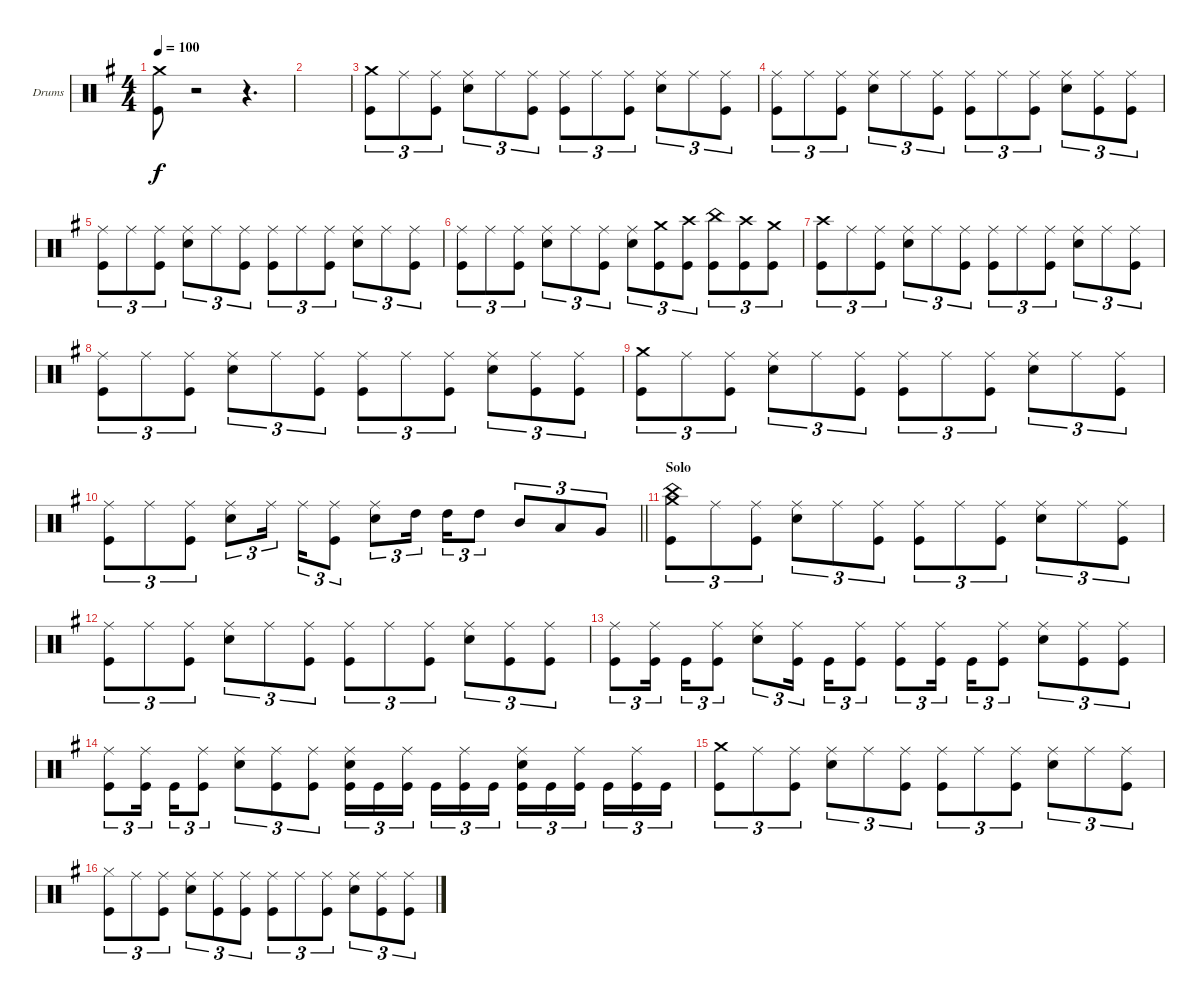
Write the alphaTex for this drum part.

\bracketExtendMode groupsimilarinstruments
\firstSystemTrackNameOrientation horizontal
\otherSystemsTrackNameOrientation horizontal
\track ("drums (Anton Zulganov)" "Drums") {instrument percussion}
\staff {score}
\articulation defaults
\ts (4 4)
\tempo 100
\clef neutral
\ks eminor
("Kick (hit)" "Crash medium (hit)").8{dy f} r.2 r.4{d} |
|
("Kick (hit)" "Crash medium (hit)").8{tu (3 2)} "Ride (middle)".8{tu (3 2)} ("Ride (middle)" "Kick (hit)").8{tu (3 2)} ("Snare (hit) 2" "Ride (middle)").8{tu (3 2)} "Ride (middle)".8{tu (3 2)} ("Ride (middle)" "Kick (hit)").8{tu (3 2)} ("Kick (hit)" "Ride (middle)").8{tu (3 2)} "Ride (middle)".8{tu (3 2)} ("Ride (middle)" "Kick (hit)").8{tu (3 2)} ("Snare (hit) 2" "Ride (middle)").8{tu (3 2)} "Ride (middle)".8{tu (3 2)} ("Kick (hit)" "Ride (middle)").8{tu (3 2)} |
("Kick (hit)" "Ride (middle)").8{tu (3 2)} "Ride (middle)".8{tu (3 2)} ("Ride (middle)" "Kick (hit)").8{tu (3 2)} ("Snare (hit) 2" "Ride (middle)").8{tu (3 2)} "Ride (middle)".8{tu (3 2)} ("Ride (middle)" "Kick (hit)").8{tu (3 2)} ("Kick (hit)" "Ride (middle)").8{tu (3 2)} "Ride (middle)".8{tu (3 2)} ("Ride (middle)" "Kick (hit)").8{tu (3 2)} ("Snare (hit) 2" "Ride (middle)").8{tu (3 2)} ("Ride (middle)" "Kick (hit)").8{tu (3 2)} ("Kick (hit)" "Ride (middle)").8{tu (3 2)} |
("Kick (hit)" "Ride (middle)").8{tu (3 2)} "Ride (middle)".8{tu (3 2)} ("Ride (middle)" "Kick (hit)").8{tu (3 2)} ("Snare (hit) 2" "Ride (middle)").8{tu (3 2)} "Ride (middle)".8{tu (3 2)} ("Ride (middle)" "Kick (hit)").8{tu (3 2)} ("Kick (hit)" "Ride (middle)").8{tu (3 2)} "Ride (middle)".8{tu (3 2)} ("Ride (middle)" "Kick (hit)").8{tu (3 2)} ("Snare (hit) 2" "Ride (middle)").8{tu (3 2)} "Ride (middle)".8{tu (3 2)} ("Kick (hit)" "Ride (middle)").8{tu (3 2)} |
("Kick (hit)" "Ride (middle)").8{tu (3 2)} "Ride (middle)".8{tu (3 2)} ("Ride (middle)" "Kick (hit)").8{tu (3 2)} ("Snare (hit) 2" "Ride (middle)").8{tu (3 2)} "Ride (middle)".8{tu (3 2)} ("Ride (middle)" "Kick (hit)").8{tu (3 2)} ("Ride (middle)" "Snare (hit) 2").8{tu (3 2)} ("Kick (hit)" "Crash medium (hit)").8{tu (3 2)} ("Kick (hit)" "Crash high (hit)").8{tu (3 2)} ("Kick (hit)" "China (hit)").8{tu (3 2)} ("Kick (hit)" "Crash high (hit)").8{tu (3 2)} ("Kick (hit)" "Crash medium (hit)").8{tu (3 2)} |
("Kick (hit)" "Crash high (hit)").8{tu (3 2)} "Ride (middle)".8{tu (3 2)} ("Ride (middle)" "Kick (hit)").8{tu (3 2)} ("Snare (hit) 2" "Ride (middle)").8{tu (3 2)} "Ride (middle)".8{tu (3 2)} ("Ride (middle)" "Kick (hit)").8{tu (3 2)} ("Kick (hit)" "Ride (middle)").8{tu (3 2)} "Ride (middle)".8{tu (3 2)} ("Ride (middle)" "Kick (hit)").8{tu (3 2)} ("Snare (hit) 2" "Ride (middle)").8{tu (3 2)} "Ride (middle)".8{tu (3 2)} ("Kick (hit)" "Ride (middle)").8{tu (3 2)} |
("Kick (hit)" "Ride (middle)").8{tu (3 2)} "Ride (middle)".8{tu (3 2)} ("Ride (middle)" "Kick (hit)").8{tu (3 2)} ("Snare (hit) 2" "Ride (middle)").8{tu (3 2)} "Ride (middle)".8{tu (3 2)} ("Ride (middle)" "Kick (hit)").8{tu (3 2)} ("Kick (hit)" "Ride (middle)").8{tu (3 2)} "Ride (middle)".8{tu (3 2)} ("Ride (middle)" "Kick (hit)").8{tu (3 2)} ("Snare (hit) 2" "Ride (middle)").8{tu (3 2)} ("Ride (middle)" "Kick (hit)").8{tu (3 2)} ("Kick (hit)" "Ride (middle)").8{tu (3 2)} |
("Kick (hit)" "Crash medium (hit)").8{tu (3 2)} "Ride (middle)".8{tu (3 2)} ("Ride (middle)" "Kick (hit)").8{tu (3 2)} ("Snare (hit) 2" "Ride (middle)").8{tu (3 2)} "Ride (middle)".8{tu (3 2)} ("Ride (middle)" "Kick (hit)").8{tu (3 2)} ("Kick (hit)" "Ride (middle)").8{tu (3 2)} "Ride (middle)".8{tu (3 2)} ("Ride (middle)" "Kick (hit)").8{tu (3 2)} ("Snare (hit) 2" "Ride (middle)").8{tu (3 2)} "Ride (middle)".8{tu (3 2)} ("Kick (hit)" "Ride (middle)").8{tu (3 2)} |
\barLineRight lightlight
("Kick (hit)" "Ride (middle)").8{tu (3 2)} "Ride (middle)".8{tu (3 2)} ("Ride (middle)" "Kick (hit)").8{tu (3 2)} ("Snare (hit) 2" "Ride (middle)").8{tu (3 2)} "Ride (middle)".16{tu (3 2)} "Ride (middle)".16{tu (3 2)} ("Ride (middle)" "Kick (hit)").8{tu (3 2)} ("Ride (middle)" "Snare (hit) 2").8{tu (3 2)} "High Tom (hit)".16{tu (3 2)} "High Tom (hit)".16{tu (3 2)} "High Tom (hit)".8{tu (3 2)} "Mid Tom (hit)".8{tu (3 2)} "Low Tom (hit)".8{tu (3 2)} "Very Low Tom (hit)".8{tu (3 2)} |
\section ("" "Solo")
("Kick (hit)" "Crash medium (hit)" "China (hit)").8{tu (3 2)} "Ride (middle)".8{tu (3 2)} ("Ride (middle)" "Kick (hit)").8{tu (3 2)} ("Snare (hit) 2" "Ride (middle)").8{tu (3 2)} "Ride (middle)".8{tu (3 2)} ("Ride (middle)" "Kick (hit)").8{tu (3 2)} ("Kick (hit)" "Ride (middle)").8{tu (3 2)} "Ride (middle)".8{tu (3 2)} ("Ride (middle)" "Kick (hit)").8{tu (3 2)} ("Snare (hit) 2" "Ride (middle)").8{tu (3 2)} "Ride (middle)".8{tu (3 2)} ("Kick (hit)" "Ride (middle)").8{tu (3 2)} |
("Kick (hit)" "Ride (middle)").8{tu (3 2)} "Ride (middle)".8{tu (3 2)} ("Ride (middle)" "Kick (hit)").8{tu (3 2)} ("Snare (hit) 2" "Ride (middle)").8{tu (3 2)} "Ride (middle)".8{tu (3 2)} ("Ride (middle)" "Kick (hit)").8{tu (3 2)} ("Kick (hit)" "Ride (middle)").8{tu (3 2)} "Ride (middle)".8{tu (3 2)} ("Ride (middle)" "Kick (hit)").8{tu (3 2)} ("Snare (hit) 2" "Ride (middle)").8{tu (3 2)} ("Ride (middle)" "Kick (hit)").8{tu (3 2)} ("Kick (hit)" "Ride (middle)").8{tu (3 2)} |
("Kick (hit)" "Ride (middle)").8{tu (3 2)} ("Ride (middle)" "Kick (hit)").16{tu (3 2)} "Kick (hit)".16{tu (3 2)} ("Ride (middle)" "Kick (hit)").8{tu (3 2)} ("Snare (hit) 2" "Ride (middle)").8{tu (3 2)} ("Ride (middle)" "Kick (hit)").16{tu (3 2)} "Kick (hit)".16{tu (3 2)} ("Ride (middle)" "Kick (hit)").8{tu (3 2)} ("Kick (hit)" "Ride (middle)").8{tu (3 2)} ("Ride (middle)" "Kick (hit)").16{tu (3 2)} "Kick (hit)".16{tu (3 2)} ("Ride (middle)" "Kick (hit)").8{tu (3 2)} ("Snare (hit) 2" "Ride (middle)").8{tu (3 2)} ("Ride (middle)" "Kick (hit)").8{tu (3 2)} ("Kick (hit)" "Ride (middle)").8{tu (3 2)} |
("Kick (hit)" "Ride (middle)").8{tu (3 2)} ("Ride (middle)" "Kick (hit)").16{tu (3 2)} "Kick (hit)".16{tu (3 2)} ("Ride (middle)" "Kick (hit)").8{tu (3 2)} ("Snare (hit) 2" "Ride (middle)").8{tu (3 2)} ("Ride (middle)" "Kick (hit)").8{tu (3 2)} ("Ride (middle)" "Kick (hit)").8{tu (3 2)} ("Kick (hit)" "Ride (middle)" "Snare (hit) 2").16{tu (3 2)} "Kick (hit)".16{tu (3 2)} ("Ride (middle)" "Kick (hit)").16{tu (3 2)} "Kick (hit)".16{tu (3 2)} ("Ride (middle)" "Kick (hit)").16{tu (3 2)} "Kick (hit)".16{tu (3 2)} ("Snare (hit) 2" "Ride (middle)" "Kick (hit)").16{tu (3 2)} "Kick (hit)".16{tu (3 2)} ("Ride (middle)" "Kick (hit)").16{tu (3 2)} "Kick (hit)".16{tu (3 2)} ("Kick (hit)" "Ride (middle)").16{tu (3 2)} "Kick (hit)".16{tu (3 2)} |
("Kick (hit)" "Crash medium (hit)").8{tu (3 2)} "Ride (middle)".8{tu (3 2)} ("Ride (middle)" "Kick (hit)").8{tu (3 2)} ("Snare (hit) 2" "Ride (middle)").8{tu (3 2)} "Ride (middle)".8{tu (3 2)} ("Ride (middle)" "Kick (hit)").8{tu (3 2)} ("Kick (hit)" "Ride (middle)").8{tu (3 2)} "Ride (middle)".8{tu (3 2)} ("Ride (middle)" "Kick (hit)").8{tu (3 2)} ("Snare (hit) 2" "Ride (middle)").8{tu (3 2)} "Ride (middle)".8{tu (3 2)} ("Kick (hit)" "Ride (middle)").8{tu (3 2)} |
("Kick (hit)" "Hi-Hat (closed)").8{tu (3 2)} "Ride (middle)".8{tu (3 2)} ("Ride (middle)" "Kick (hit)").8{tu (3 2)} ("Snare (hit) 2" "Ride (middle)").8{tu (3 2)} ("Ride (middle)" "Kick (hit)").8{tu (3 2)} ("Ride (middle)" "Kick (hit)").8{tu (3 2)} ("Kick (hit)" "Ride (middle)").8{tu (3 2)} "Ride (middle)".8{tu (3 2)} ("Ride (middle)" "Kick (hit)").8{tu (3 2)} ("Snare (hit) 2" "Ride (middle)").8{tu (3 2)} ("Ride (middle)" "Kick (hit)").8{tu (3 2)} ("Kick (hit)" "Ride (middle)").8{tu (3 2)}
